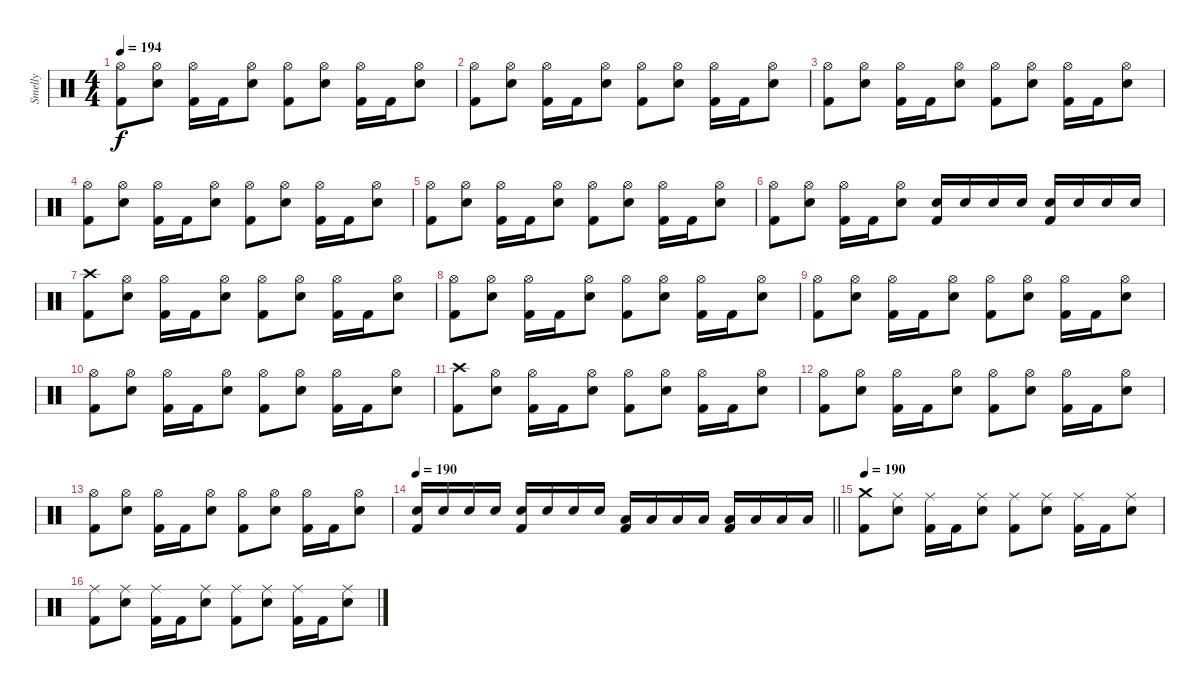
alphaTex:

\track ("Smelly" "Smelly") {instrument percussion}
\staff {score}
\articulation defaults
\ts (4 4)
\tempo 194
\clef neutral
\ks c
("Hi-Hat (open)" "Kick (hit) 2").8{dy f} ("Hi-Hat (open)" "Electric Snare (hit)").8 ("Hi-Hat (open)" "Kick (hit) 2").16 "Kick (hit) 2".16 ("Hi-Hat (open)" "Electric Snare (hit)").8 ("Hi-Hat (open)" "Kick (hit) 2").8 ("Hi-Hat (open)" "Electric Snare (hit)").8 ("Hi-Hat (open)" "Kick (hit) 2").16 "Kick (hit) 2".16 ("Hi-Hat (open)" "Electric Snare (hit)").8 |
("Hi-Hat (open)" "Kick (hit) 2").8 ("Hi-Hat (open)" "Electric Snare (hit)").8 ("Hi-Hat (open)" "Kick (hit) 2").16 "Kick (hit) 2".16 ("Hi-Hat (open)" "Electric Snare (hit)").8 ("Hi-Hat (open)" "Kick (hit) 2").8 ("Hi-Hat (open)" "Electric Snare (hit)").8 ("Hi-Hat (open)" "Kick (hit) 2").16 "Kick (hit) 2".16 ("Hi-Hat (open)" "Electric Snare (hit)").8 |
("Hi-Hat (open)" "Kick (hit) 2").8 ("Hi-Hat (open)" "Electric Snare (hit)").8 ("Hi-Hat (open)" "Kick (hit) 2").16 "Kick (hit) 2".16 ("Hi-Hat (open)" "Electric Snare (hit)").8 ("Hi-Hat (open)" "Kick (hit) 2").8 ("Hi-Hat (open)" "Electric Snare (hit)").8 ("Hi-Hat (open)" "Kick (hit) 2").16 "Kick (hit) 2".16 ("Hi-Hat (open)" "Electric Snare (hit)").8 |
("Hi-Hat (open)" "Kick (hit) 2").8 ("Hi-Hat (open)" "Electric Snare (hit)").8 ("Hi-Hat (open)" "Kick (hit) 2").16 "Kick (hit) 2".16 ("Hi-Hat (open)" "Electric Snare (hit)").8 ("Hi-Hat (open)" "Kick (hit) 2").8 ("Hi-Hat (open)" "Electric Snare (hit)").8 ("Hi-Hat (open)" "Kick (hit) 2").16 "Kick (hit) 2".16 ("Hi-Hat (open)" "Electric Snare (hit)").8 |
("Hi-Hat (open)" "Kick (hit) 2").8 ("Hi-Hat (open)" "Electric Snare (hit)").8 ("Hi-Hat (open)" "Kick (hit) 2").16 "Kick (hit) 2".16 ("Hi-Hat (open)" "Electric Snare (hit)").8 ("Hi-Hat (open)" "Kick (hit) 2").8 ("Hi-Hat (open)" "Electric Snare (hit)").8 ("Hi-Hat (open)" "Kick (hit) 2").16 "Kick (hit) 2".16 ("Hi-Hat (open)" "Electric Snare (hit)").8 |
("Hi-Hat (open)" "Kick (hit) 2").8 ("Hi-Hat (open)" "Electric Snare (hit)").8 ("Hi-Hat (open)" "Kick (hit) 2").16 "Kick (hit) 2".16 ("Hi-Hat (open)" "Electric Snare (hit)").8 ("Electric Snare (hit)" "Kick (hit) 2").16 "Electric Snare (hit)".16 "Electric Snare (hit)".16 "Electric Snare (hit)".16 ("Electric Snare (hit)" "Kick (hit) 2").16 "Electric Snare (hit)".16 "Electric Snare (hit)".16 "Electric Snare (hit)".16 |
("Crash high (hit)" "Kick (hit) 2").8 ("Hi-Hat (open)" "Electric Snare (hit)").8 ("Hi-Hat (open)" "Kick (hit) 2").16 "Kick (hit) 2".16 ("Hi-Hat (open)" "Electric Snare (hit)").8 ("Hi-Hat (open)" "Kick (hit) 2").8 ("Hi-Hat (open)" "Electric Snare (hit)").8 ("Hi-Hat (open)" "Kick (hit) 2").16 "Kick (hit) 2".16 ("Hi-Hat (open)" "Electric Snare (hit)").8 |
("Hi-Hat (open)" "Kick (hit) 2").8 ("Hi-Hat (open)" "Electric Snare (hit)").8 ("Hi-Hat (open)" "Kick (hit) 2").16 "Kick (hit) 2".16 ("Hi-Hat (open)" "Electric Snare (hit)").8 ("Hi-Hat (open)" "Kick (hit) 2").8 ("Hi-Hat (open)" "Electric Snare (hit)").8 ("Hi-Hat (open)" "Kick (hit) 2").16 "Kick (hit) 2".16 ("Hi-Hat (open)" "Electric Snare (hit)").8 |
("Hi-Hat (open)" "Kick (hit) 2").8 ("Hi-Hat (open)" "Electric Snare (hit)").8 ("Hi-Hat (open)" "Kick (hit) 2").16 "Kick (hit) 2".16 ("Hi-Hat (open)" "Electric Snare (hit)").8 ("Hi-Hat (open)" "Kick (hit) 2").8 ("Hi-Hat (open)" "Electric Snare (hit)").8 ("Hi-Hat (open)" "Kick (hit) 2").16 "Kick (hit) 2".16 ("Hi-Hat (open)" "Electric Snare (hit)").8 |
("Hi-Hat (open)" "Kick (hit) 2").8 ("Hi-Hat (open)" "Electric Snare (hit)").8 ("Hi-Hat (open)" "Kick (hit) 2").16 "Kick (hit) 2".16 ("Hi-Hat (open)" "Electric Snare (hit)").8 ("Hi-Hat (open)" "Kick (hit) 2").8 ("Hi-Hat (open)" "Electric Snare (hit)").8 ("Hi-Hat (open)" "Kick (hit) 2").16 "Kick (hit) 2".16 ("Hi-Hat (open)" "Electric Snare (hit)").8 |
("Crash high (hit)" "Kick (hit) 2").8 ("Hi-Hat (open)" "Electric Snare (hit)").8 ("Hi-Hat (open)" "Kick (hit) 2").16 "Kick (hit) 2".16 ("Hi-Hat (open)" "Electric Snare (hit)").8 ("Hi-Hat (open)" "Kick (hit) 2").8 ("Hi-Hat (open)" "Electric Snare (hit)").8 ("Hi-Hat (open)" "Kick (hit) 2").16 "Kick (hit) 2".16 ("Hi-Hat (open)" "Electric Snare (hit)").8 |
("Hi-Hat (open)" "Kick (hit) 2").8 ("Hi-Hat (open)" "Electric Snare (hit)").8 ("Hi-Hat (open)" "Kick (hit) 2").16 "Kick (hit) 2".16 ("Hi-Hat (open)" "Electric Snare (hit)").8 ("Hi-Hat (open)" "Kick (hit) 2").8 ("Hi-Hat (open)" "Electric Snare (hit)").8 ("Hi-Hat (open)" "Kick (hit) 2").16 "Kick (hit) 2".16 ("Hi-Hat (open)" "Electric Snare (hit)").8 |
("Hi-Hat (open)" "Kick (hit) 2").8 ("Hi-Hat (open)" "Electric Snare (hit)").8 ("Hi-Hat (open)" "Kick (hit) 2").16 "Kick (hit) 2".16 ("Hi-Hat (open)" "Electric Snare (hit)").8 ("Hi-Hat (open)" "Kick (hit) 2").8 ("Hi-Hat (open)" "Electric Snare (hit)").8 ("Hi-Hat (open)" "Kick (hit) 2").16 "Kick (hit) 2".16 ("Hi-Hat (open)" "Electric Snare (hit)").8 |
\tempo 190
\barLineRight lightlight
("Electric Snare (hit)" "Kick (hit) 2").16 "Electric Snare (hit)".16 "Electric Snare (hit)".16 "Electric Snare (hit)".16 ("Electric Snare (hit)" "Kick (hit) 2").16 "Electric Snare (hit)".16 "Electric Snare (hit)".16 "Electric Snare (hit)".16 ("Low Tom (hit)" "Kick (hit) 2").16 "Low Tom (hit)".16 "Low Tom (hit)".16 "Low Tom (hit)".16 ("Low Floor Tom (hit)" "Kick (hit) 2").16 "Low Floor Tom (hit)".16 "Low Floor Tom (hit)".16 "Low Floor Tom (hit)".16 |
\section ("" "")
\tempo 190
("Crash medium (hit)" "Kick (hit) 2").8 ("Ride (middle)" "Electric Snare (hit)").8 ("Ride (middle)" "Kick (hit) 2").16 "Kick (hit) 2".16 ("Ride (middle)" "Electric Snare (hit)").8 ("Ride (middle)" "Kick (hit) 2").8 ("Ride (middle)" "Electric Snare (hit)").8 ("Ride (middle)" "Kick (hit) 2").16 "Kick (hit) 2".16 ("Ride (middle)" "Electric Snare (hit)").8 |
("Ride (middle)" "Kick (hit) 2").8 ("Ride (middle)" "Electric Snare (hit)").8 ("Ride (middle)" "Kick (hit) 2").16 "Kick (hit) 2".16 ("Ride (middle)" "Electric Snare (hit)").8 ("Ride (middle)" "Kick (hit) 2").8 ("Ride (middle)" "Electric Snare (hit)").8 ("Ride (middle)" "Kick (hit) 2").16 "Kick (hit) 2".16 ("Ride (middle)" "Electric Snare (hit)").8
